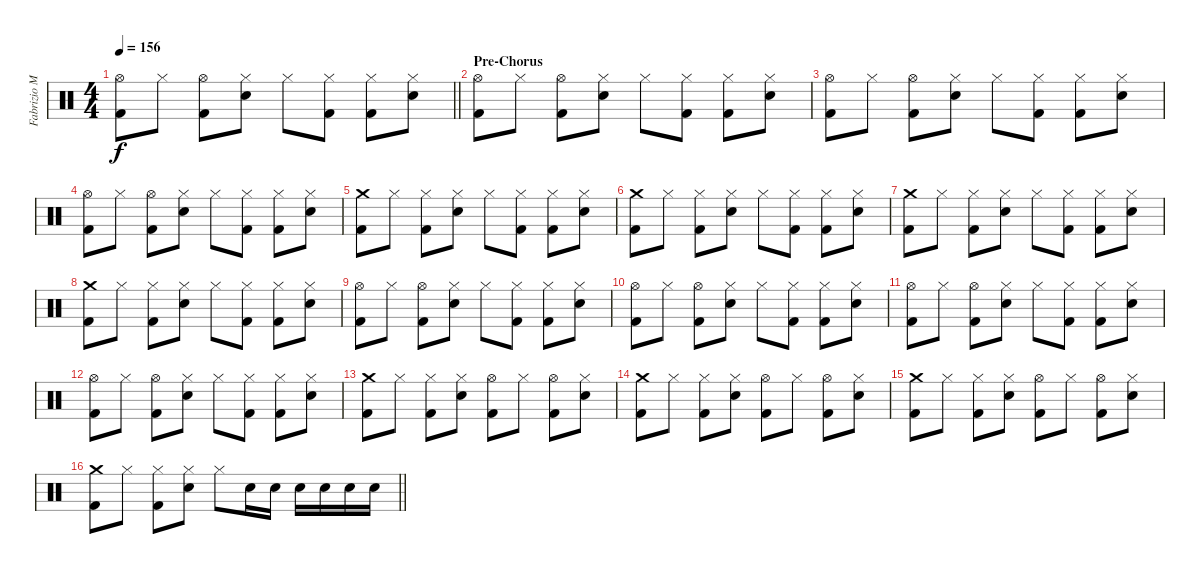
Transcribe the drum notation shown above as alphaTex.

\track ("Fabrizio Moretti (Drums)" "Fabrizio M") {instrument percussion}
\staff {score}
\articulation defaults
\ts (4 4)
\tempo 156
\clef neutral
\barLineRight lightlight
\ks c
("Hi-Hat (open)" "Kick (hit) 2").8{dy f} "Hi-Hat (closed)".8 ("Hi-Hat (open)" "Kick (hit) 2").8 ("Hi-Hat (closed)" "Snare (hit) 2").8 "Hi-Hat (closed)".8 ("Hi-Hat (closed)" "Kick (hit) 2").8 ("Hi-Hat (closed)" "Kick (hit) 2").8 ("Hi-Hat (closed)" "Snare (hit) 2").8 |
\section ("" "Pre-Chorus")
("Hi-Hat (open)" "Kick (hit) 2").8 "Hi-Hat (closed)".8 ("Hi-Hat (open)" "Kick (hit) 2").8 ("Hi-Hat (closed)" "Snare (hit) 2").8 "Hi-Hat (closed)".8 ("Hi-Hat (closed)" "Kick (hit) 2").8 ("Hi-Hat (closed)" "Kick (hit) 2").8 ("Hi-Hat (closed)" "Snare (hit) 2").8 |
("Hi-Hat (open)" "Kick (hit) 2").8 "Hi-Hat (closed)".8 ("Hi-Hat (open)" "Kick (hit) 2").8 ("Hi-Hat (closed)" "Snare (hit) 2").8 "Hi-Hat (closed)".8 ("Hi-Hat (closed)" "Kick (hit) 2").8 ("Hi-Hat (closed)" "Kick (hit) 2").8 ("Hi-Hat (closed)" "Snare (hit) 2").8 |
("Hi-Hat (open)" "Kick (hit) 2").8 "Hi-Hat (closed)".8 ("Hi-Hat (open)" "Kick (hit) 2").8 ("Hi-Hat (closed)" "Snare (hit) 2").8 "Hi-Hat (closed)".8 ("Hi-Hat (closed)" "Kick (hit) 2").8 ("Hi-Hat (closed)" "Kick (hit) 2").8 ("Hi-Hat (closed)" "Snare (hit) 2").8 |
("Crash medium (hit)" "Kick (hit) 2").8 "Hi-Hat (closed)".8 ("Hi-Hat (closed)" "Kick (hit) 2").8 ("Hi-Hat (closed)" "Snare (hit) 2").8 "Hi-Hat (closed)".8 ("Hi-Hat (closed)" "Kick (hit) 2").8 ("Hi-Hat (closed)" "Kick (hit) 2").8 ("Hi-Hat (closed)" "Snare (hit) 2").8 |
("Crash medium (hit)" "Kick (hit) 2").8 "Hi-Hat (closed)".8 ("Hi-Hat (closed)" "Kick (hit) 2").8 ("Hi-Hat (closed)" "Snare (hit) 2").8 "Hi-Hat (closed)".8 ("Hi-Hat (closed)" "Kick (hit) 2").8 ("Hi-Hat (closed)" "Kick (hit) 2").8 ("Hi-Hat (closed)" "Snare (hit) 2").8 |
("Crash medium (hit)" "Kick (hit) 2").8 "Hi-Hat (closed)".8 ("Hi-Hat (closed)" "Kick (hit) 2").8 ("Hi-Hat (closed)" "Snare (hit) 2").8 "Hi-Hat (closed)".8 ("Hi-Hat (closed)" "Kick (hit) 2").8 ("Hi-Hat (closed)" "Kick (hit) 2").8 ("Hi-Hat (closed)" "Snare (hit) 2").8 |
("Crash medium (hit)" "Kick (hit) 2").8 "Hi-Hat (closed)".8 ("Hi-Hat (closed)" "Kick (hit) 2").8 ("Hi-Hat (closed)" "Snare (hit) 2").8 "Hi-Hat (closed)".8 ("Hi-Hat (closed)" "Kick (hit) 2").8 ("Hi-Hat (closed)" "Kick (hit) 2").8 ("Hi-Hat (closed)" "Snare (hit) 2").8 |
("Hi-Hat (open)" "Kick (hit) 2").8 "Hi-Hat (closed)".8 ("Hi-Hat (open)" "Kick (hit) 2").8 ("Hi-Hat (closed)" "Snare (hit) 2").8 "Hi-Hat (closed)".8 ("Hi-Hat (closed)" "Kick (hit) 2").8 ("Hi-Hat (closed)" "Kick (hit) 2").8 ("Hi-Hat (closed)" "Snare (hit) 2").8 |
("Hi-Hat (open)" "Kick (hit) 2").8 "Hi-Hat (closed)".8 ("Hi-Hat (open)" "Kick (hit) 2").8 ("Hi-Hat (closed)" "Snare (hit) 2").8 "Hi-Hat (closed)".8 ("Hi-Hat (closed)" "Kick (hit) 2").8 ("Hi-Hat (closed)" "Kick (hit) 2").8 ("Hi-Hat (closed)" "Snare (hit) 2").8 |
("Hi-Hat (open)" "Kick (hit) 2").8 "Hi-Hat (closed)".8 ("Hi-Hat (open)" "Kick (hit) 2").8 ("Hi-Hat (closed)" "Snare (hit) 2").8 "Hi-Hat (closed)".8 ("Hi-Hat (closed)" "Kick (hit) 2").8 ("Hi-Hat (closed)" "Kick (hit) 2").8 ("Hi-Hat (closed)" "Snare (hit) 2").8 |
("Hi-Hat (open)" "Kick (hit) 2").8 "Hi-Hat (closed)".8 ("Hi-Hat (open)" "Kick (hit) 2").8 ("Hi-Hat (closed)" "Snare (hit) 2").8 "Hi-Hat (closed)".8 ("Hi-Hat (closed)" "Kick (hit) 2").8 ("Hi-Hat (closed)" "Kick (hit) 2").8 ("Hi-Hat (closed)" "Snare (hit) 2").8 |
("Crash medium (hit)" "Kick (hit) 2").8 "Hi-Hat (closed)".8 ("Hi-Hat (closed)" "Kick (hit) 2").8 ("Hi-Hat (closed)" "Snare (hit) 2").8 ("Hi-Hat (open)" "Kick (hit) 2").8 "Hi-Hat (closed)".8 ("Hi-Hat (open)" "Kick (hit) 2").8 ("Hi-Hat (closed)" "Snare (hit) 2").8 |
("Crash medium (hit)" "Kick (hit) 2").8 "Hi-Hat (closed)".8 ("Hi-Hat (closed)" "Kick (hit) 2").8 ("Hi-Hat (closed)" "Snare (hit) 2").8 ("Hi-Hat (open)" "Kick (hit) 2").8 "Hi-Hat (closed)".8 ("Hi-Hat (open)" "Kick (hit) 2").8 ("Hi-Hat (closed)" "Snare (hit) 2").8 |
("Crash medium (hit)" "Kick (hit) 2").8 "Hi-Hat (closed)".8 ("Hi-Hat (closed)" "Kick (hit) 2").8 ("Hi-Hat (closed)" "Snare (hit) 2").8 ("Hi-Hat (open)" "Kick (hit) 2").8 "Hi-Hat (closed)".8 ("Hi-Hat (open)" "Kick (hit) 2").8 ("Hi-Hat (closed)" "Snare (hit) 2").8 |
\barLineRight lightlight
("Crash medium (hit)" "Kick (hit) 2").8 "Hi-Hat (closed)".8 ("Hi-Hat (closed)" "Kick (hit) 2").8 ("Hi-Hat (closed)" "Snare (hit) 2").8 "Hi-Hat (closed)".8 "Snare (hit) 2".16 "Snare (hit) 2".16 "Snare (hit) 2".16 "Snare (hit) 2".16 "Snare (hit) 2".16 "Snare (hit) 2".16
